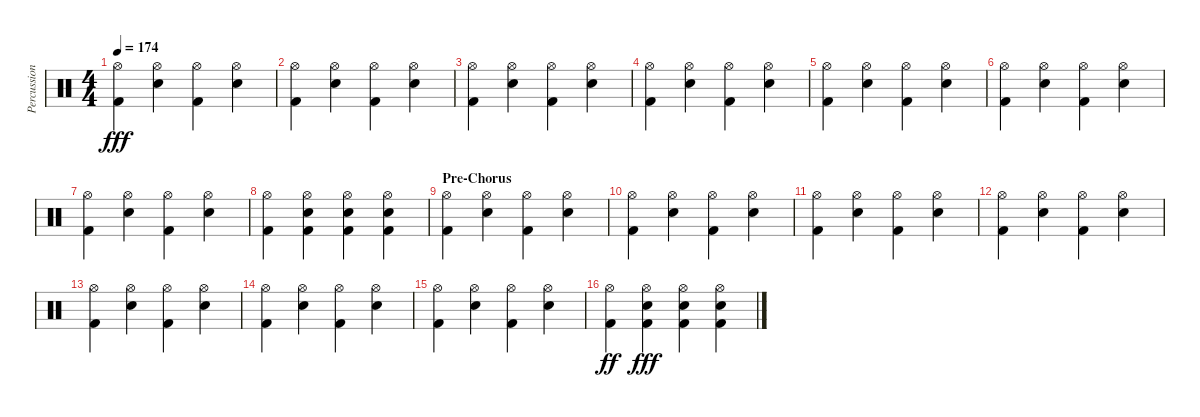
\track ("Percussion" "Percussion") {instrument percussion}
\staff {score}
\articulation defaults
\ts (4 4)
\tempo 174
\clef neutral
\ks c
("Hi-Hat (open)" "Kick (hit) 2").4{dy fff} ("Hi-Hat (open)" "Electric Snare (hit)").4 ("Hi-Hat (open)" "Kick (hit) 2").4 ("Hi-Hat (open)" "Electric Snare (hit)").4 |
("Hi-Hat (open)" "Kick (hit) 2").4 ("Hi-Hat (open)" "Electric Snare (hit)").4 ("Hi-Hat (open)" "Kick (hit) 2").4 ("Hi-Hat (open)" "Electric Snare (hit)").4 |
("Hi-Hat (open)" "Kick (hit) 2").4 ("Hi-Hat (open)" "Electric Snare (hit)").4 ("Hi-Hat (open)" "Kick (hit) 2").4 ("Hi-Hat (open)" "Electric Snare (hit)").4 |
("Hi-Hat (open)" "Kick (hit) 2").4 ("Hi-Hat (open)" "Electric Snare (hit)").4 ("Hi-Hat (open)" "Kick (hit) 2").4 ("Hi-Hat (open)" "Electric Snare (hit)").4 |
("Hi-Hat (open)" "Kick (hit) 2").4 ("Hi-Hat (open)" "Electric Snare (hit)").4 ("Hi-Hat (open)" "Kick (hit) 2").4 ("Hi-Hat (open)" "Electric Snare (hit)").4 |
("Hi-Hat (open)" "Kick (hit) 2").4 ("Hi-Hat (open)" "Electric Snare (hit)").4 ("Hi-Hat (open)" "Kick (hit) 2").4 ("Hi-Hat (open)" "Electric Snare (hit)").4 |
("Hi-Hat (open)" "Kick (hit) 2").4 ("Hi-Hat (open)" "Electric Snare (hit)").4 ("Hi-Hat (open)" "Kick (hit) 2").4 ("Hi-Hat (open)" "Electric Snare (hit)").4 |
("Hi-Hat (open)" "Kick (hit) 2").4 ("Hi-Hat (open)" "Electric Snare (hit)" "Kick (hit) 2").4 ("Hi-Hat (open)" "Electric Snare (hit)" "Kick (hit) 2").4 ("Hi-Hat (open)" "Electric Snare (hit)" "Kick (hit) 2").4 |
\section ("" "Pre-Chorus")
("Hi-Hat (open)" "Kick (hit) 2").4 ("Hi-Hat (open)" "Electric Snare (hit)").4 ("Hi-Hat (open)" "Kick (hit) 2").4 ("Hi-Hat (open)" "Electric Snare (hit)").4 |
("Hi-Hat (open)" "Kick (hit) 2").4 ("Hi-Hat (open)" "Electric Snare (hit)").4 ("Hi-Hat (open)" "Kick (hit) 2").4 ("Hi-Hat (open)" "Electric Snare (hit)").4 |
("Hi-Hat (open)" "Kick (hit) 2").4 ("Hi-Hat (open)" "Electric Snare (hit)").4 ("Hi-Hat (open)" "Kick (hit) 2").4 ("Hi-Hat (open)" "Electric Snare (hit)").4 |
("Hi-Hat (open)" "Kick (hit) 2").4 ("Hi-Hat (open)" "Electric Snare (hit)").4 ("Hi-Hat (open)" "Kick (hit) 2").4 ("Hi-Hat (open)" "Electric Snare (hit)").4 |
("Hi-Hat (open)" "Kick (hit) 2").4 ("Hi-Hat (open)" "Electric Snare (hit)").4 ("Hi-Hat (open)" "Kick (hit) 2").4 ("Hi-Hat (open)" "Electric Snare (hit)").4 |
("Hi-Hat (open)" "Kick (hit) 2").4 ("Hi-Hat (open)" "Electric Snare (hit)").4 ("Hi-Hat (open)" "Kick (hit) 2").4 ("Hi-Hat (open)" "Electric Snare (hit)").4 |
("Hi-Hat (open)" "Kick (hit) 2").4 ("Hi-Hat (open)" "Electric Snare (hit)").4 ("Hi-Hat (open)" "Kick (hit) 2").4 ("Hi-Hat (open)" "Electric Snare (hit)").4 |
("Hi-Hat (open)" "Kick (hit) 2").4{dy ff} ("Hi-Hat (open)" "Electric Snare (hit)" "Kick (hit) 2").4{dy fff} ("Hi-Hat (open)" "Electric Snare (hit)" "Kick (hit) 2").4 ("Hi-Hat (open)" "Electric Snare (hit)" "Kick (hit) 2").4
